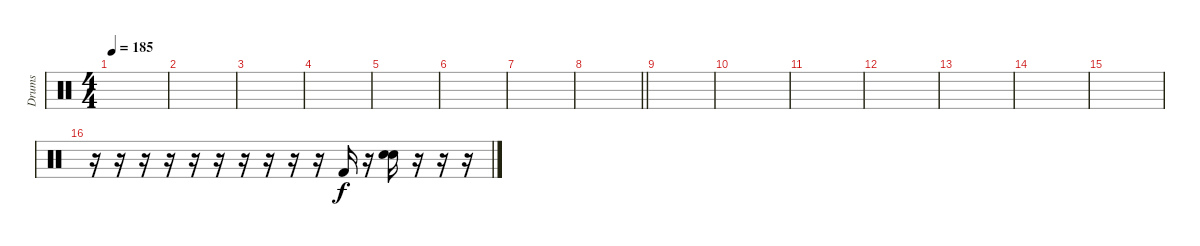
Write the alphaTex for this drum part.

\track ("Drums" "Drums") {instrument percussion}
\staff {score}
\articulation defaults
\ts (4 4)
\tempo 185
\clef neutral
\ks c
|
|
|
|
|
|
|
\barLineRight lightlight
|
\section ("" "")
|
|
|
|
|
|
|
r.16 r.16 r.16 r.16 r.16 r.16 r.16 r.16 r.16 r.16 "Kick (hit) 2".16 r.16 ("Electric Snare (hit)" "Snare (hit) 2").16 r.16 r.16 r.16
